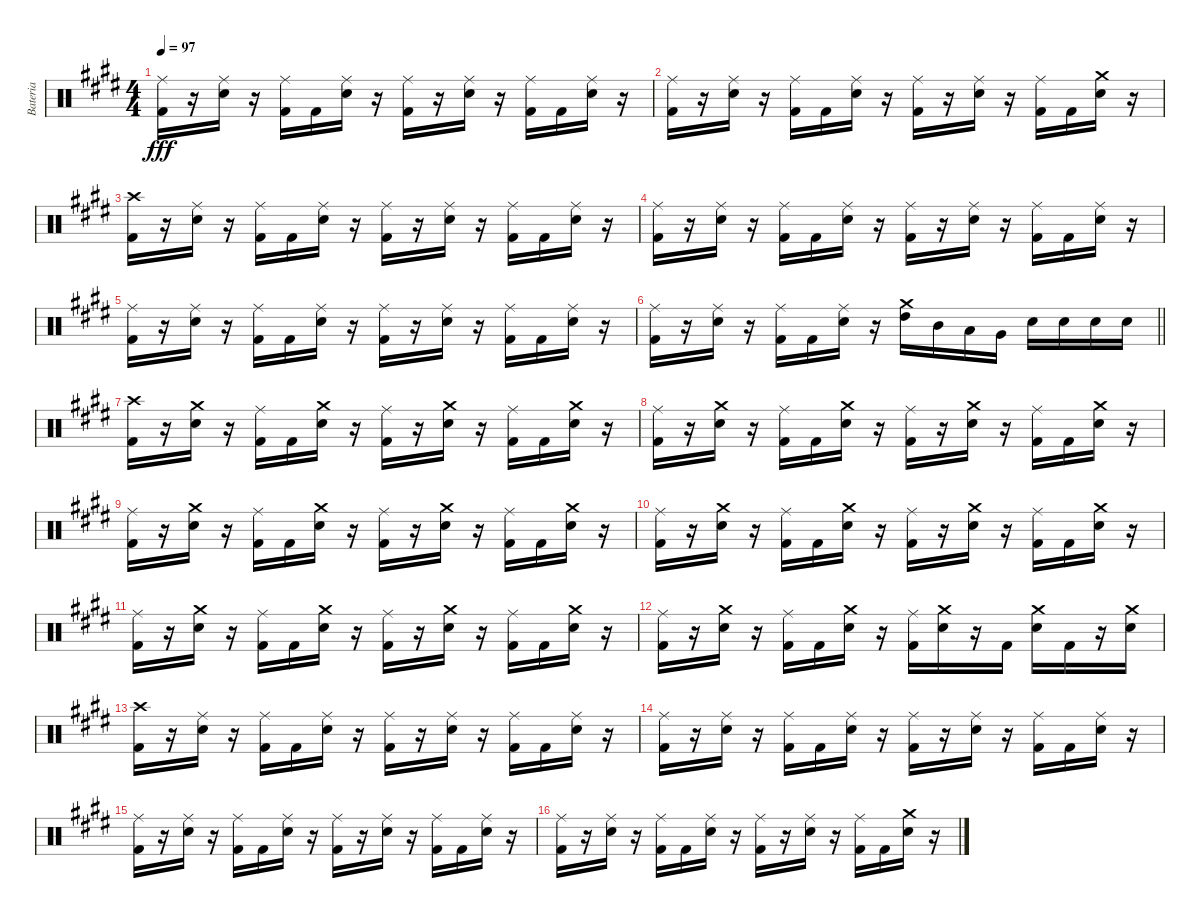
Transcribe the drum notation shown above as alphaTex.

\track ("Bateria" "Bateria") {instrument percussion}
\staff {score}
\articulation defaults
\ts (4 4)
\tempo 97
\clef neutral
\ks e
("Ride (middle)" "Kick (hit) 2").16{dy fff} r.16 ("Ride (middle)" "Electric Snare (hit)").16 r.16 ("Ride (middle)" "Kick (hit) 2").16 "Kick (hit) 2".16 ("Ride (middle)" "Electric Snare (hit)").16 r.16 ("Ride (middle)" "Kick (hit) 2").16 r.16 ("Ride (middle)" "Electric Snare (hit)").16 r.16 ("Ride (middle)" "Kick (hit) 2").16 "Kick (hit) 2".16 ("Ride (middle)" "Electric Snare (hit)").16 r.16 |
("Ride (middle)" "Kick (hit) 2").16 r.16 ("Ride (middle)" "Electric Snare (hit)").16 r.16 ("Ride (middle)" "Kick (hit) 2").16 "Kick (hit) 2".16 ("Ride (middle)" "Electric Snare (hit)").16 r.16 ("Ride (middle)" "Kick (hit) 2").16 r.16 ("Ride (middle)" "Electric Snare (hit)").16 r.16 ("Ride (middle)" "Kick (hit) 2").16 "Kick (hit) 2".16 ("Crash medium (hit)" "Electric Snare (hit)").16 r.16 |
("Crash high (hit)" "Kick (hit) 2").16 r.16 ("Ride (middle)" "Electric Snare (hit)").16 r.16 ("Ride (middle)" "Kick (hit) 2").16 "Kick (hit) 2".16 ("Ride (middle)" "Electric Snare (hit)").16 r.16 ("Ride (middle)" "Kick (hit) 2").16 r.16 ("Ride (middle)" "Electric Snare (hit)").16 r.16 ("Ride (middle)" "Kick (hit) 2").16 "Kick (hit) 2".16 ("Ride (middle)" "Electric Snare (hit)").16 r.16 |
("Ride (middle)" "Kick (hit) 2").16 r.16 ("Ride (middle)" "Electric Snare (hit)").16 r.16 ("Ride (middle)" "Kick (hit) 2").16 "Kick (hit) 2".16 ("Ride (middle)" "Electric Snare (hit)").16 r.16 ("Ride (middle)" "Kick (hit) 2").16 r.16 ("Ride (middle)" "Electric Snare (hit)").16 r.16 ("Ride (middle)" "Kick (hit) 2").16 "Kick (hit) 2".16 ("Ride (middle)" "Electric Snare (hit)").16 r.16 |
("Ride (middle)" "Kick (hit) 2").16 r.16 ("Ride (middle)" "Electric Snare (hit)").16 r.16 ("Ride (middle)" "Kick (hit) 2").16 "Kick (hit) 2".16 ("Ride (middle)" "Electric Snare (hit)").16 r.16 ("Ride (middle)" "Kick (hit) 2").16 r.16 ("Ride (middle)" "Electric Snare (hit)").16 r.16 ("Ride (middle)" "Kick (hit) 2").16 "Kick (hit) 2".16 ("Ride (middle)" "Electric Snare (hit)").16 r.16 |
\barLineRight lightlight
("Ride (middle)" "Kick (hit) 2").16 r.16 ("Ride (middle)" "Electric Snare (hit)").16 r.16 ("Ride (middle)" "Kick (hit) 2").16 "Kick (hit) 2".16 ("Ride (middle)" "Electric Snare (hit)").16 r.16 ("Crash medium (hit)" "High Tom (hit)").16 "Mid Tom (hit)".16 "Low Tom (hit)".16 "Very Low Tom (hit)".16 "Electric Snare (hit)".16 "Electric Snare (hit)".16 "Electric Snare (hit)".16 "Electric Snare (hit)".16 |
("Crash high (hit)" "Kick (hit) 2").16 r.16 ("Crash medium (hit)" "Electric Snare (hit)").16 r.16 ("Ride (middle)" "Kick (hit) 2").16 "Kick (hit) 2".16 ("Crash medium (hit)" "Electric Snare (hit)").16 r.16 ("Ride (middle)" "Kick (hit) 2").16 r.16 ("Crash medium (hit)" "Electric Snare (hit)").16 r.16 ("Ride (middle)" "Kick (hit) 2").16 "Kick (hit) 2".16 ("Crash medium (hit)" "Electric Snare (hit)").16 r.16 |
("Ride (middle)" "Kick (hit) 2").16 r.16 ("Crash medium (hit)" "Electric Snare (hit)").16 r.16 ("Ride (middle)" "Kick (hit) 2").16 "Kick (hit) 2".16 ("Crash medium (hit)" "Electric Snare (hit)").16 r.16 ("Ride (middle)" "Kick (hit) 2").16 r.16 ("Crash medium (hit)" "Electric Snare (hit)").16 r.16 ("Ride (middle)" "Kick (hit) 2").16 "Kick (hit) 2".16 ("Crash medium (hit)" "Electric Snare (hit)").16 r.16 |
("Ride (middle)" "Kick (hit) 2").16 r.16 ("Crash medium (hit)" "Electric Snare (hit)").16 r.16 ("Ride (middle)" "Kick (hit) 2").16 "Kick (hit) 2".16 ("Crash medium (hit)" "Electric Snare (hit)").16 r.16 ("Ride (middle)" "Kick (hit) 2").16 r.16 ("Crash medium (hit)" "Electric Snare (hit)").16 r.16 ("Ride (middle)" "Kick (hit) 2").16 "Kick (hit) 2".16 ("Crash medium (hit)" "Electric Snare (hit)").16 r.16 |
("Ride (middle)" "Kick (hit) 2").16 r.16 ("Crash medium (hit)" "Electric Snare (hit)").16 r.16 ("Ride (middle)" "Kick (hit) 2").16 "Kick (hit) 2".16 ("Crash medium (hit)" "Electric Snare (hit)").16 r.16 ("Ride (middle)" "Kick (hit) 2").16 r.16 ("Crash medium (hit)" "Electric Snare (hit)").16 r.16 ("Ride (middle)" "Kick (hit) 2").16 "Kick (hit) 2".16 ("Crash medium (hit)" "Electric Snare (hit)").16 r.16 |
("Ride (middle)" "Kick (hit) 2").16 r.16 ("Crash medium (hit)" "Electric Snare (hit)").16 r.16 ("Ride (middle)" "Kick (hit) 2").16 "Kick (hit) 2".16 ("Crash medium (hit)" "Electric Snare (hit)").16 r.16 ("Ride (middle)" "Kick (hit) 2").16 r.16 ("Crash medium (hit)" "Electric Snare (hit)").16 r.16 ("Ride (middle)" "Kick (hit) 2").16 "Kick (hit) 2".16 ("Crash medium (hit)" "Electric Snare (hit)").16 r.16 |
("Ride (middle)" "Kick (hit) 2").16 r.16 ("Crash medium (hit)" "Electric Snare (hit)").16 r.16 ("Ride (middle)" "Kick (hit) 2").16 "Kick (hit) 2".16 ("Crash medium (hit)" "Electric Snare (hit)").16 r.16 ("Ride (middle)" "Kick (hit) 2").16 ("Electric Snare (hit)" "Crash medium (hit)").16 r.16 "Kick (hit) 2".16 ("Electric Snare (hit)" "Crash medium (hit)").16 "Kick (hit) 2".16 r.16 ("Electric Snare (hit)" "Crash medium (hit)").16 |
("Crash high (hit)" "Kick (hit) 2").16 r.16 ("Ride (middle)" "Electric Snare (hit)").16 r.16 ("Ride (middle)" "Kick (hit) 2").16 "Kick (hit) 2".16 ("Ride (middle)" "Electric Snare (hit)").16 r.16 ("Ride (middle)" "Kick (hit) 2").16 r.16 ("Ride (middle)" "Electric Snare (hit)").16 r.16 ("Ride (middle)" "Kick (hit) 2").16 "Kick (hit) 2".16 ("Ride (middle)" "Electric Snare (hit)").16 r.16 |
("Ride (middle)" "Kick (hit) 2").16 r.16 ("Ride (middle)" "Electric Snare (hit)").16 r.16 ("Ride (middle)" "Kick (hit) 2").16 "Kick (hit) 2".16 ("Ride (middle)" "Electric Snare (hit)").16 r.16 ("Ride (middle)" "Kick (hit) 2").16 r.16 ("Ride (middle)" "Electric Snare (hit)").16 r.16 ("Ride (middle)" "Kick (hit) 2").16 "Kick (hit) 2".16 ("Ride (middle)" "Electric Snare (hit)").16 r.16 |
("Ride (middle)" "Kick (hit) 2").16 r.16 ("Ride (middle)" "Electric Snare (hit)").16 r.16 ("Ride (middle)" "Kick (hit) 2").16 "Kick (hit) 2".16 ("Ride (middle)" "Electric Snare (hit)").16 r.16 ("Ride (middle)" "Kick (hit) 2").16 r.16 ("Ride (middle)" "Electric Snare (hit)").16 r.16 ("Ride (middle)" "Kick (hit) 2").16 "Kick (hit) 2".16 ("Ride (middle)" "Electric Snare (hit)").16 r.16 |
("Ride (middle)" "Kick (hit) 2").16 r.16 ("Ride (middle)" "Electric Snare (hit)").16 r.16 ("Ride (middle)" "Kick (hit) 2").16 "Kick (hit) 2".16 ("Ride (middle)" "Electric Snare (hit)").16 r.16 ("Ride (middle)" "Kick (hit) 2").16 r.16 ("Ride (middle)" "Electric Snare (hit)").16 r.16 ("Ride (middle)" "Kick (hit) 2").16 "Kick (hit) 2".16 ("Crash medium (hit)" "Electric Snare (hit)").16 r.16
